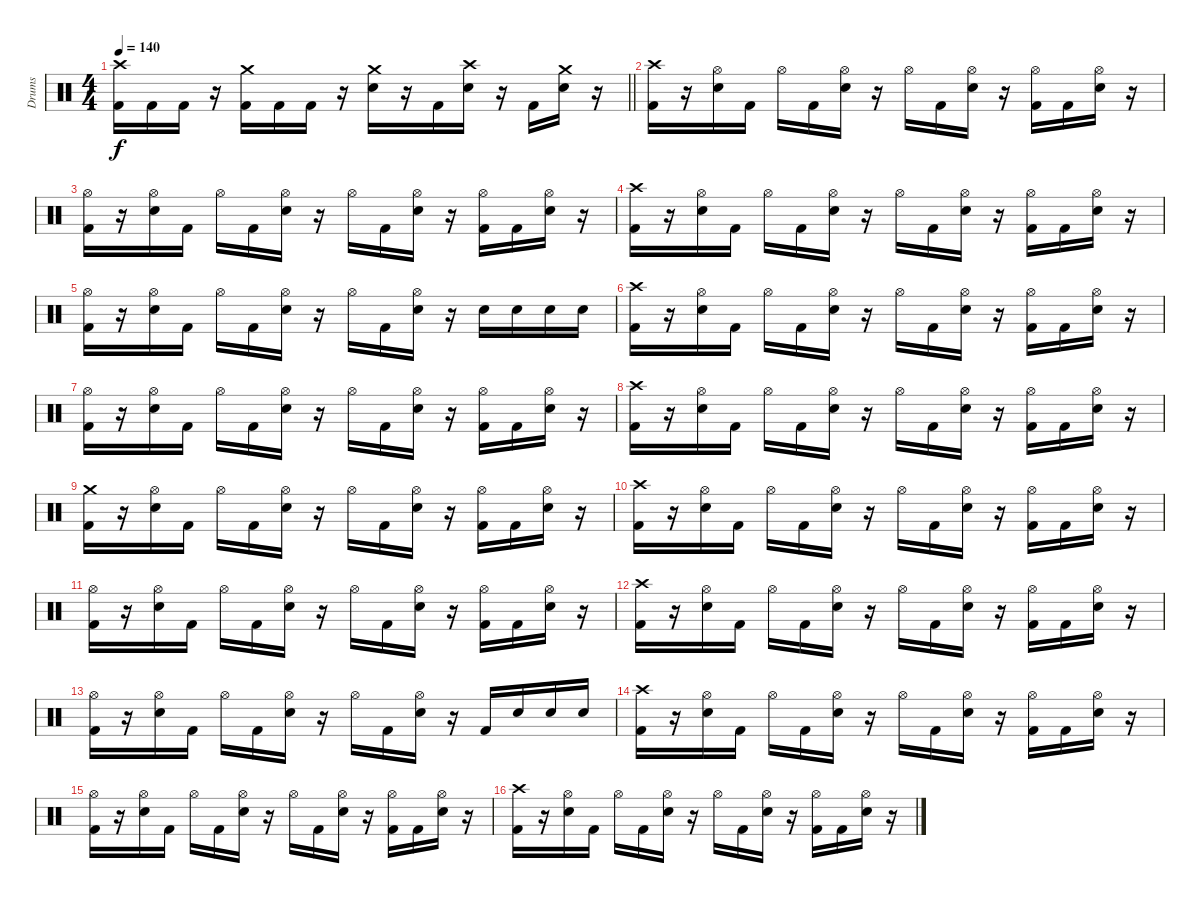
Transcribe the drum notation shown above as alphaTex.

\track ("Drums" "Drums") {instrument percussion}
\staff {score}
\articulation defaults
\ts (4 4)
\tempo 140
\clef neutral
\barLineRight lightlight
\ks c
("Kick (hit) 2" "Crash high (hit)").16{dy f} "Kick (hit) 2".16 "Kick (hit) 2".16 r.16 ("Kick (hit) 2" "Crash medium (hit)").16 "Kick (hit) 2".16 "Kick (hit) 2".16 r.16 ("Snare (hit) 2" "Crash medium (hit)").16 r.16 "Kick (hit) 2".16 ("Snare (hit) 2" "Crash high (hit)").16 r.16 "Kick (hit) 2".16 ("Snare (hit) 2" "Crash medium (hit)").16 r.16 |
\section ("" " ")
("Kick (hit) 2" "Crash high (hit)").16 r.16 ("Snare (hit) 2" "Hi-Hat (open)").16 "Kick (hit) 2".16 "Hi-Hat (open)".16 "Kick (hit) 2".16 ("Snare (hit) 2" "Hi-Hat (open)").16 r.16 "Hi-Hat (open)".16 "Kick (hit) 2".16 ("Snare (hit) 2" "Hi-Hat (open)").16 r.16 ("Kick (hit) 2" "Hi-Hat (open)").16 "Kick (hit) 2".16 ("Snare (hit) 2" "Hi-Hat (open)").16 r.16 |
("Kick (hit) 2" "Hi-Hat (open)").16 r.16 ("Snare (hit) 2" "Hi-Hat (open)").16 "Kick (hit) 2".16 "Hi-Hat (open)".16 "Kick (hit) 2".16 ("Snare (hit) 2" "Hi-Hat (open)").16 r.16 "Hi-Hat (open)".16 "Kick (hit) 2".16 ("Snare (hit) 2" "Hi-Hat (open)").16 r.16 ("Kick (hit) 2" "Hi-Hat (open)").16 "Kick (hit) 2".16 ("Snare (hit) 2" "Hi-Hat (open)").16 r.16 |
("Kick (hit) 2" "Crash high (hit)").16 r.16 ("Snare (hit) 2" "Hi-Hat (open)").16 "Kick (hit) 2".16 "Hi-Hat (open)".16 "Kick (hit) 2".16 ("Snare (hit) 2" "Hi-Hat (open)").16 r.16 "Hi-Hat (open)".16 "Kick (hit) 2".16 ("Snare (hit) 2" "Hi-Hat (open)").16 r.16 ("Kick (hit) 2" "Hi-Hat (open)").16 "Kick (hit) 2".16 ("Snare (hit) 2" "Hi-Hat (open)").16 r.16 |
("Kick (hit) 2" "Hi-Hat (open)").16 r.16 ("Snare (hit) 2" "Hi-Hat (open)").16 "Kick (hit) 2".16 "Hi-Hat (open)".16 "Kick (hit) 2".16 ("Snare (hit) 2" "Hi-Hat (open)").16 r.16 "Hi-Hat (open)".16 "Kick (hit) 2".16 ("Snare (hit) 2" "Hi-Hat (open)").16 r.16 "Snare (hit) 2".16 "Snare (hit) 2".16 "Snare (hit) 2".16 "Snare (hit) 2".16 |
("Kick (hit) 2" "Crash high (hit)").16 r.16 ("Snare (hit) 2" "Hi-Hat (open)").16 "Kick (hit) 2".16 "Hi-Hat (open)".16 "Kick (hit) 2".16 ("Snare (hit) 2" "Hi-Hat (open)").16 r.16 "Hi-Hat (open)".16 "Kick (hit) 2".16 ("Snare (hit) 2" "Hi-Hat (open)").16 r.16 ("Kick (hit) 2" "Hi-Hat (open)").16 "Kick (hit) 2".16 ("Snare (hit) 2" "Hi-Hat (open)").16 r.16 |
("Kick (hit) 2" "Hi-Hat (open)").16 r.16 ("Snare (hit) 2" "Hi-Hat (open)").16 "Kick (hit) 2".16 "Hi-Hat (open)".16 "Kick (hit) 2".16 ("Snare (hit) 2" "Hi-Hat (open)").16 r.16 "Hi-Hat (open)".16 "Kick (hit) 2".16 ("Snare (hit) 2" "Hi-Hat (open)").16 r.16 ("Kick (hit) 2" "Hi-Hat (open)").16 "Kick (hit) 2".16 ("Snare (hit) 2" "Hi-Hat (open)").16 r.16 |
("Kick (hit) 2" "Crash high (hit)").16 r.16 ("Snare (hit) 2" "Hi-Hat (open)").16 "Kick (hit) 2".16 "Hi-Hat (open)".16 "Kick (hit) 2".16 ("Snare (hit) 2" "Hi-Hat (open)").16 r.16 "Hi-Hat (open)".16 "Kick (hit) 2".16 ("Snare (hit) 2" "Hi-Hat (open)").16 r.16 ("Kick (hit) 2" "Hi-Hat (open)").16 "Kick (hit) 2".16 ("Snare (hit) 2" "Hi-Hat (open)").16 r.16 |
("Kick (hit) 2" "Crash medium (hit)").16 r.16 ("Snare (hit) 2" "Hi-Hat (open)").16 "Kick (hit) 2".16 "Hi-Hat (open)".16 "Kick (hit) 2".16 ("Snare (hit) 2" "Hi-Hat (open)").16 r.16 "Hi-Hat (open)".16 "Kick (hit) 2".16 ("Snare (hit) 2" "Hi-Hat (open)").16 r.16 ("Kick (hit) 2" "Hi-Hat (open)").16 "Kick (hit) 2".16 ("Snare (hit) 2" "Hi-Hat (open)").16 r.16 |
("Kick (hit) 2" "Crash high (hit)").16 r.16 ("Snare (hit) 2" "Hi-Hat (open)").16 "Kick (hit) 2".16 "Hi-Hat (open)".16 "Kick (hit) 2".16 ("Snare (hit) 2" "Hi-Hat (open)").16 r.16 "Hi-Hat (open)".16 "Kick (hit) 2".16 ("Snare (hit) 2" "Hi-Hat (open)").16 r.16 ("Kick (hit) 2" "Hi-Hat (open)").16 "Kick (hit) 2".16 ("Snare (hit) 2" "Hi-Hat (open)").16 r.16 |
("Kick (hit) 2" "Hi-Hat (open)").16 r.16 ("Snare (hit) 2" "Hi-Hat (open)").16 "Kick (hit) 2".16 "Hi-Hat (open)".16 "Kick (hit) 2".16 ("Snare (hit) 2" "Hi-Hat (open)").16 r.16 "Hi-Hat (open)".16 "Kick (hit) 2".16 ("Snare (hit) 2" "Hi-Hat (open)").16 r.16 ("Kick (hit) 2" "Hi-Hat (open)").16 "Kick (hit) 2".16 ("Snare (hit) 2" "Hi-Hat (open)").16 r.16 |
("Kick (hit) 2" "Crash high (hit)").16 r.16 ("Snare (hit) 2" "Hi-Hat (open)").16 "Kick (hit) 2".16 "Hi-Hat (open)".16 "Kick (hit) 2".16 ("Snare (hit) 2" "Hi-Hat (open)").16 r.16 "Hi-Hat (open)".16 "Kick (hit) 2".16 ("Snare (hit) 2" "Hi-Hat (open)").16 r.16 ("Kick (hit) 2" "Hi-Hat (open)").16 "Kick (hit) 2".16 ("Snare (hit) 2" "Hi-Hat (open)").16 r.16 |
("Kick (hit) 2" "Hi-Hat (open)").16 r.16 ("Snare (hit) 2" "Hi-Hat (open)").16 "Kick (hit) 2".16 "Hi-Hat (open)".16 "Kick (hit) 2".16 ("Snare (hit) 2" "Hi-Hat (open)").16 r.16 "Hi-Hat (open)".16 "Kick (hit) 2".16 ("Snare (hit) 2" "Hi-Hat (open)").16 r.16 "Kick (hit) 2".16 "Snare (hit) 2".16 "Snare (hit) 2".16 "Snare (hit) 2".16 |
("Kick (hit) 2" "Crash high (hit)").16 r.16 ("Snare (hit) 2" "Hi-Hat (open)").16 "Kick (hit) 2".16 "Hi-Hat (open)".16 "Kick (hit) 2".16 ("Snare (hit) 2" "Hi-Hat (open)").16 r.16 "Hi-Hat (open)".16 "Kick (hit) 2".16 ("Snare (hit) 2" "Hi-Hat (open)").16 r.16 ("Kick (hit) 2" "Hi-Hat (open)").16 "Kick (hit) 2".16 ("Snare (hit) 2" "Hi-Hat (open)").16 r.16 |
("Kick (hit) 2" "Hi-Hat (open)").16 r.16 ("Snare (hit) 2" "Hi-Hat (open)").16 "Kick (hit) 2".16 "Hi-Hat (open)".16 "Kick (hit) 2".16 ("Snare (hit) 2" "Hi-Hat (open)").16 r.16 "Hi-Hat (open)".16 "Kick (hit) 2".16 ("Snare (hit) 2" "Hi-Hat (open)").16 r.16 ("Kick (hit) 2" "Hi-Hat (open)").16 "Kick (hit) 2".16 ("Snare (hit) 2" "Hi-Hat (open)").16 r.16 |
("Kick (hit) 2" "Crash high (hit)").16 r.16 ("Snare (hit) 2" "Hi-Hat (open)").16 "Kick (hit) 2".16 "Hi-Hat (open)".16 "Kick (hit) 2".16 ("Snare (hit) 2" "Hi-Hat (open)").16 r.16 "Hi-Hat (open)".16 "Kick (hit) 2".16 ("Snare (hit) 2" "Hi-Hat (open)").16 r.16 ("Kick (hit) 2" "Hi-Hat (open)").16 "Kick (hit) 2".16 ("Snare (hit) 2" "Hi-Hat (open)").16 r.16
